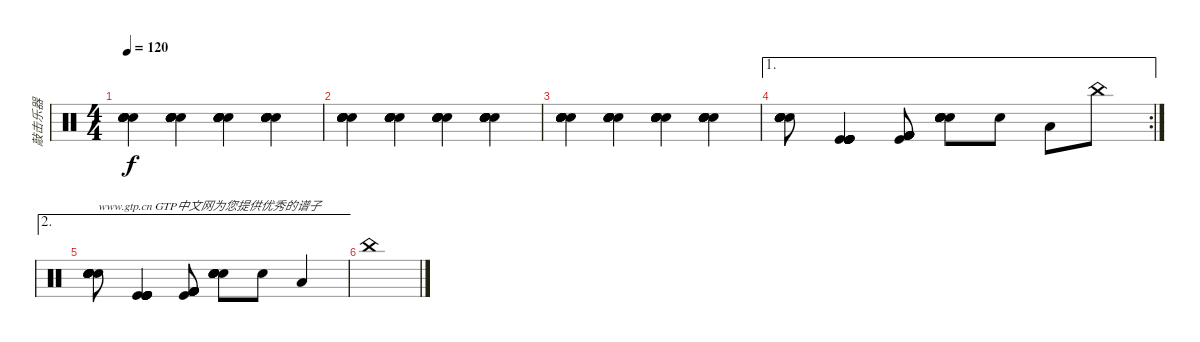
\track ("敲击乐器" "敲击乐器") {instrument percussion}
\staff {score}
\articulation defaults
\ts (4 4)
\tempo 120
\clef neutral
\ks c
("Hand Clap (hit)" "Hand Clap (hit)" "Hand Clap (hit)" "Hand Clap (hit)" "Hand Clap (hit)" "Hand Clap (hit)").4{dy f} ("Snare (hit) 2" "Snare (hit) 2" "Snare (hit) 2" "Snare (hit) 2" "Snare (hit) 2" "Snare (hit) 2").4 ("Hand Clap (hit)" "Hand Clap (hit)" "Hand Clap (hit)" "Hand Clap (hit)" "Hand Clap (hit)" "Hand Clap (hit)").4 ("Snare (hit) 2" "Snare (hit) 2" "Snare (hit) 2" "Snare (hit) 2" "Snare (hit) 2" "Snare (hit) 2").4 |
("Hand Clap (hit)" "Hand Clap (hit)" "Hand Clap (hit)" "Hand Clap (hit)" "Hand Clap (hit)" "Hand Clap (hit)").4 ("Snare (hit) 2" "Snare (hit) 2" "Snare (hit) 2" "Snare (hit) 2" "Snare (hit) 2" "Snare (hit) 2").4 ("Hand Clap (hit)" "Hand Clap (hit)" "Hand Clap (hit)" "Hand Clap (hit)" "Hand Clap (hit)" "Hand Clap (hit)").4 ("Snare (hit) 2" "Snare (hit) 2" "Snare (hit) 2" "Snare (hit) 2" "Snare (hit) 2" "Snare (hit) 2").4 |
("Hand Clap (hit)" "Hand Clap (hit)" "Hand Clap (hit)" "Hand Clap (hit)" "Hand Clap (hit)" "Hand Clap (hit)").4 ("Snare (hit) 2" "Snare (hit) 2" "Snare (hit) 2" "Snare (hit) 2" "Snare (hit) 2" "Snare (hit) 2").4 ("Hand Clap (hit)" "Hand Clap (hit)" "Hand Clap (hit)" "Hand Clap (hit)" "Hand Clap (hit)" "Hand Clap (hit)").4 ("Snare (hit) 2" "Snare (hit) 2" "Snare (hit) 2" "Snare (hit) 2" "Snare (hit) 2" "Snare (hit) 2").4 |
\ae 1
\rc 2
("Snare (hit) 2" "Hand Clap (hit)" "Hand Clap (hit)" "Hand Clap (hit)" "Hand Clap (hit)" "Hand Clap (hit)").8 ("Kick (hit)" "Kick (hit)" "Kick (hit)" "Kick (hit)" "Kick (hit)" "Kick (hit)").4 ("Kick (hit) 2" "Kick (hit) 2" "Kick (hit) 2" "Kick (hit)" "Kick (hit) 2" "Kick (hit) 2").8 ("Snare (hit) 2" "Snare (hit) 2" "Snare (hit) 2" "Snare (hit) 2" "Snare (hit) 2" "Snare (hit) 2").8 "Snare (hit) 2".8 "Low Floor Tom (hit)".8 "China (hit)".8 |
\ae 2
("Snare (hit) 2" "Hand Clap (hit)" "Hand Clap (hit)" "Hand Clap (hit)" "Hand Clap (hit)" "Hand Clap (hit)").8{txt "www.gtp.cn GTP中文网为您提供优秀的谱子"} ("Kick (hit)" "Kick (hit)" "Kick (hit)" "Kick (hit)" "Kick (hit)" "Kick (hit)").4 ("Kick (hit) 2" "Kick (hit) 2" "Kick (hit) 2" "Kick (hit)" "Kick (hit) 2" "Kick (hit) 2").8 ("Snare (hit) 2" "Snare (hit) 2" "Snare (hit) 2" "Snare (hit) 2" "Snare (hit) 2" "Snare (hit) 2").8 "Snare (hit) 2".8 "Low Floor Tom (hit)".4 |
"China (hit)".1
